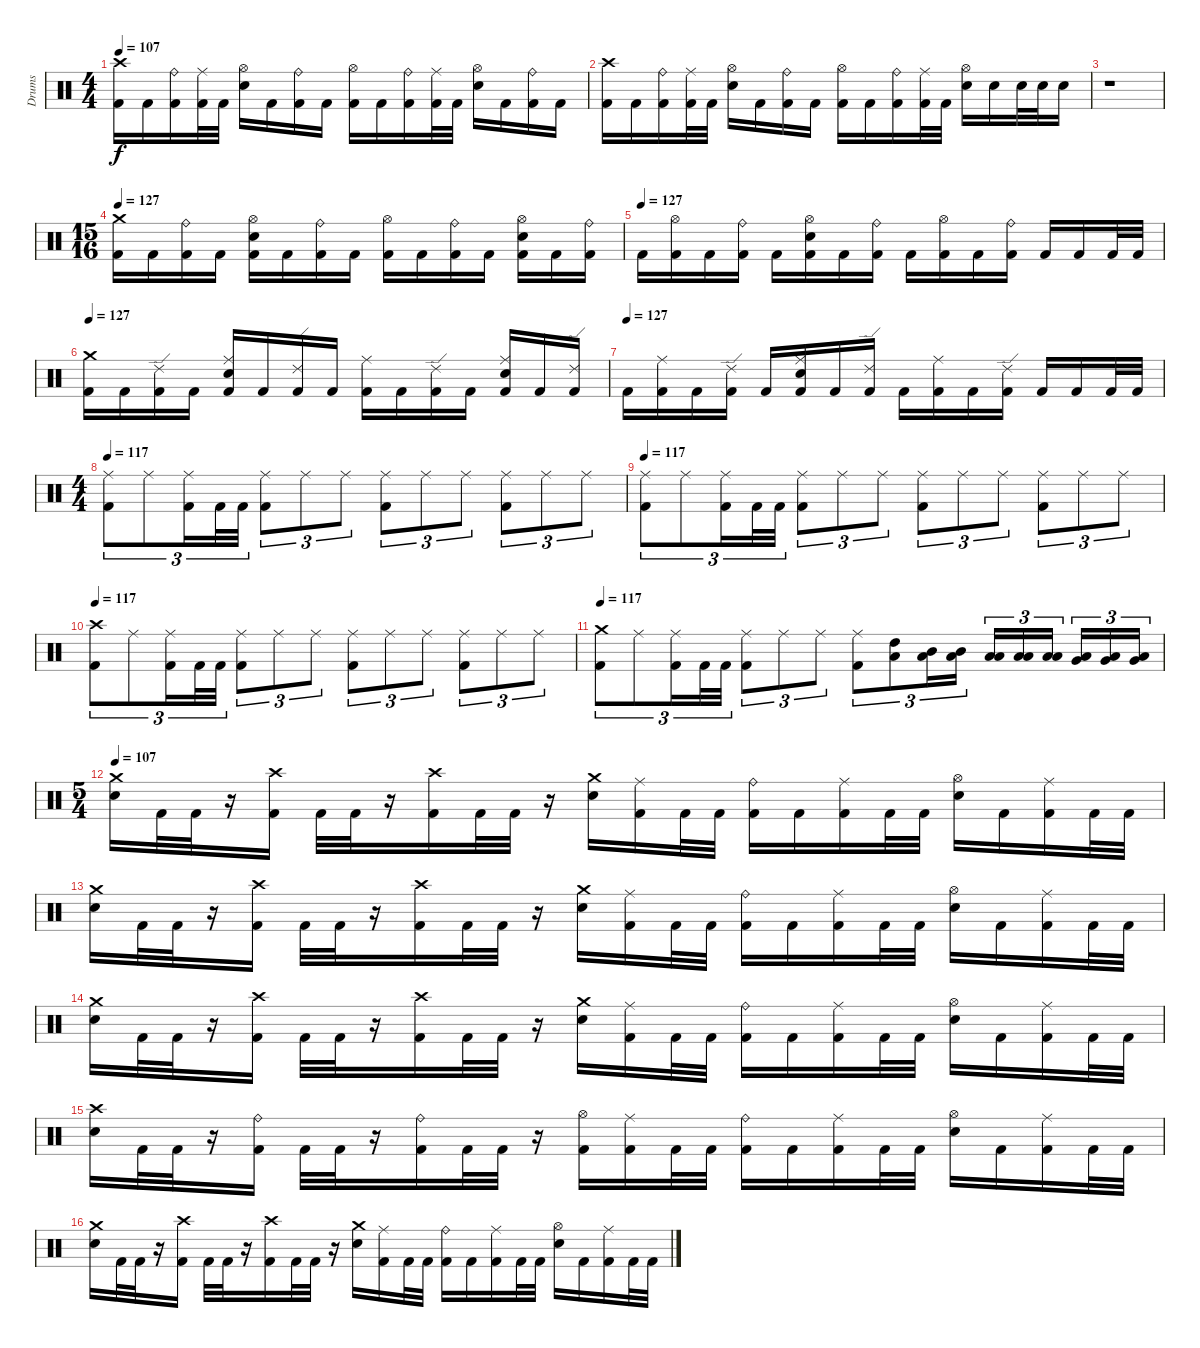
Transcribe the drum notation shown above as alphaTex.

\track ("Drums" "Drums") {instrument percussion}
\staff {score}
\articulation defaults
\ts (4 4)
\tempo 107
\clef neutral
\ks c
("Crash high (hit)" "Kick (hit) 2").16{dy f} "Kick (hit) 2".16 ("Ride (bell)" "Kick (hit) 2").16 ("Ride (middle)" "Kick (hit) 2").32 "Kick (hit) 2".32 ("Hi-Hat (open)" "Snare (hit) 2").16 "Kick (hit) 2".16 ("Ride (bell)" "Kick (hit) 2").16 "Kick (hit) 2".16 ("Hi-Hat (open)" "Kick (hit) 2").16 "Kick (hit) 2".16 ("Ride (bell)" "Kick (hit) 2").16 ("Ride (middle)" "Kick (hit) 2").32 "Kick (hit) 2".32 ("Hi-Hat (open)" "Snare (hit) 2").16 "Kick (hit) 2".16 ("Ride (bell)" "Kick (hit) 2").16 "Kick (hit) 2".16 |
("Crash high (hit)" "Kick (hit) 2").16 "Kick (hit) 2".16 ("Ride (bell)" "Kick (hit) 2").16 ("Ride (middle)" "Kick (hit) 2").32 "Kick (hit) 2".32 ("Hi-Hat (open)" "Snare (hit) 2").16 "Kick (hit) 2".16 ("Ride (bell)" "Kick (hit) 2").16 "Kick (hit) 2".16 ("Hi-Hat (open)" "Kick (hit) 2").16 "Kick (hit) 2".16 ("Ride (bell)" "Kick (hit) 2").16 ("Ride (middle)" "Kick (hit) 2").32 "Kick (hit) 2".32 ("Hi-Hat (open)" "Snare (hit) 2").16 "Electric Snare (hit)".16 "Electric Snare (hit)".32 "Electric Snare (hit)".32 "Electric Snare (hit)".16 |
r.1 |
\ts (15 16)
\tempo 127
("Crash medium (hit)" "Kick (hit) 2").16 "Kick (hit) 2".16 ("Ride (bell)" "Kick (hit) 2").16 "Kick (hit) 2".16 ("Hi-Hat (open)" "Snare (hit) 2" "Kick (hit) 2").16 "Kick (hit) 2".16 ("Ride (bell)" "Kick (hit) 2").16 "Kick (hit) 2".16 ("Hi-Hat (open)" "Kick (hit) 2").16 "Kick (hit) 2".16 ("Ride (bell)" "Kick (hit) 2").16 "Kick (hit) 2".16 ("Hi-Hat (open)" "Snare (hit) 2" "Kick (hit) 2").16 "Kick (hit) 2".16 ("Ride (bell)" "Kick (hit) 2").16 |
\tempo (127)
"Kick (hit) 2".16 ("Hi-Hat (open)" "Kick (hit) 2").16 "Kick (hit) 2".16 ("Ride (bell)" "Kick (hit) 2").16 "Kick (hit) 2".16 ("Hi-Hat (open)" "Snare (hit) 2" "Kick (hit) 2").16 "Kick (hit) 2".16 ("Ride (bell)" "Kick (hit) 2").16 "Kick (hit) 2".16 ("Hi-Hat (open)" "Kick (hit) 2").16 "Kick (hit) 2".16 ("Ride (bell)" "Kick (hit) 2").16 "Kick (hit) 2".16 "Kick (hit) 2".16 "Kick (hit) 2".32 "Kick (hit) 2".32 |
\tempo 127
("Crash medium (hit)" "Kick (hit) 2").16 "Kick (hit) 2".16 ("Ride (edge) 2" "Kick (hit) 2").16 "Kick (hit) 2".16 ("Ride (middle)" "Snare (hit) 2" "Kick (hit) 2").16 "Kick (hit) 2".16 ("Ride (edge) 2" "Kick (hit) 2").16 "Kick (hit) 2".16 ("Ride (middle)" "Kick (hit) 2").16 "Kick (hit) 2".16 ("Ride (edge) 2" "Kick (hit) 2").16 "Kick (hit) 2".16 ("Ride (middle)" "Snare (hit) 2" "Kick (hit) 2").16 "Kick (hit) 2".16 ("Ride (edge) 2" "Kick (hit) 2").16 |
\tempo (127)
"Kick (hit) 2".16 ("Ride (middle)" "Kick (hit) 2").16 "Kick (hit) 2".16 ("Ride (edge) 2" "Kick (hit) 2").16 "Kick (hit) 2".16 ("Ride (middle)" "Snare (hit) 2" "Kick (hit) 2").16 "Kick (hit) 2".16 ("Ride (edge) 2" "Kick (hit) 2").16 "Kick (hit) 2".16 ("Ride (middle)" "Kick (hit) 2").16 "Kick (hit) 2".16 ("Ride (edge) 2" "Kick (hit) 2").16 "Kick (hit) 2".16 "Kick (hit) 2".16 "Kick (hit) 2".32 "Kick (hit) 2".32 |
\ts (4 4)
\tempo 117
("Ride (middle)" "Kick (hit) 2").8{tu (3 2)} "Ride (middle)".8{tu (3 2)} ("Ride (middle)" "Kick (hit) 2").16{tu (3 2)} "Kick (hit) 2".32{tu (3 2)} "Kick (hit) 2".32{tu (3 2)} ("Ride (middle)" "Kick (hit) 2").8{tu (3 2)} "Ride (middle)".8{tu (3 2)} "Ride (middle)".8{tu (3 2)} ("Ride (middle)" "Kick (hit) 2").8{tu (3 2)} "Ride (middle)".8{tu (3 2)} "Ride (middle)".8{tu (3 2)} ("Ride (middle)" "Kick (hit) 2").8{tu (3 2)} "Ride (middle)".8{tu (3 2)} "Ride (middle)".8{tu (3 2)} |
\tempo 117
("Ride (middle)" "Kick (hit) 2").8{tu (3 2)} "Ride (middle)".8{tu (3 2)} ("Ride (middle)" "Kick (hit) 2").16{tu (3 2)} "Kick (hit) 2".32{tu (3 2)} "Kick (hit) 2".32{tu (3 2)} ("Ride (middle)" "Kick (hit) 2").8{tu (3 2)} "Ride (middle)".8{tu (3 2)} "Ride (middle)".8{tu (3 2)} ("Ride (middle)" "Kick (hit) 2").8{tu (3 2)} "Ride (middle)".8{tu (3 2)} "Ride (middle)".8{tu (3 2)} ("Ride (middle)" "Kick (hit) 2").8{tu (3 2)} "Ride (middle)".8{tu (3 2)} "Ride (middle)".8{tu (3 2)} |
\tempo 117
("Crash high (hit)" "Kick (hit) 2").8{tu (3 2)} "Ride (middle)".8{tu (3 2)} ("Ride (middle)" "Kick (hit) 2").16{tu (3 2)} "Kick (hit) 2".32{tu (3 2)} "Kick (hit) 2".32{tu (3 2)} ("Ride (middle)" "Kick (hit) 2").8{tu (3 2)} "Ride (middle)".8{tu (3 2)} "Ride (middle)".8{tu (3 2)} ("Ride (middle)" "Kick (hit) 2").8{tu (3 2)} "Ride (middle)".8{tu (3 2)} "Ride (middle)".8{tu (3 2)} ("Ride (middle)" "Kick (hit) 2").8{tu (3 2)} "Ride (middle)".8{tu (3 2)} "Ride (middle)".8{tu (3 2)} |
\tempo 117
("Crash medium (hit)" "Kick (hit) 2").8{tu (3 2)} "Ride (middle)".8{tu (3 2)} ("Ride (middle)" "Kick (hit) 2").16{tu (3 2)} "Kick (hit) 2".32{tu (3 2)} "Kick (hit) 2".32{tu (3 2)} ("Ride (middle)" "Kick (hit) 2").8{tu (3 2)} "Ride (middle)".8{tu (3 2)} "Ride (middle)".8{tu (3 2)} ("Ride (middle)" "Kick (hit) 2").8{tu (3 2)} ("High Tom (hit)" "Low Floor Tom (hit)").8{tu (3 2)} ("Mid Tom (hit)" "Low Floor Tom (hit)").16{tu (3 2)} ("Mid Tom (hit)" "Low Floor Tom (hit)").16{tu (3 2)} ("Low Tom (hit)" "Low Floor Tom (hit)").16{tu (3 2)} ("Low Tom (hit)" "Low Floor Tom (hit)").16{tu (3 2)} ("Low Tom (hit)" "Low Floor Tom (hit)").16{tu (3 2)} ("Very Low Tom (hit)" "Low Floor Tom (hit)").16{tu (3 2)} ("Very Low Tom (hit)" "Low Floor Tom (hit)").16{tu (3 2)} ("Very Low Tom (hit)" "Low Floor Tom (hit)").16{tu (3 2)} |
\ts (5 4)
\tempo 107
("Crash medium (hit)" "Snare (hit) 2").16 "Kick (hit) 2".32 "Kick (hit) 2".32 r.16 ("Crash high (hit)" "Kick (hit) 2").16 "Kick (hit) 2".32 "Kick (hit) 2".32 r.16 ("Crash high (hit)" "Kick (hit) 2").16 "Kick (hit) 2".32 "Kick (hit) 2".32 r.16 ("Crash medium (hit)" "Snare (hit) 2").16 ("Ride (middle)" "Kick (hit) 2").16 "Kick (hit) 2".32 "Kick (hit) 2".32 ("Ride (bell)" "Kick (hit) 2").16 "Kick (hit) 2".16 ("Ride (middle)" "Kick (hit) 2").16 "Kick (hit) 2".32 "Kick (hit) 2".32 ("Hi-Hat (open)" "Snare (hit) 2").16 "Kick (hit) 2".16 ("Ride (middle)" "Kick (hit) 2").16 "Kick (hit) 2".32 "Kick (hit) 2".32 |
("Crash medium (hit)" "Snare (hit) 2").16 "Kick (hit) 2".32 "Kick (hit) 2".32 r.16 ("Crash high (hit)" "Kick (hit) 2").16 "Kick (hit) 2".32 "Kick (hit) 2".32 r.16 ("Crash high (hit)" "Kick (hit) 2").16 "Kick (hit) 2".32 "Kick (hit) 2".32 r.16 ("Crash medium (hit)" "Snare (hit) 2").16 ("Ride (middle)" "Kick (hit) 2").16 "Kick (hit) 2".32 "Kick (hit) 2".32 ("Ride (bell)" "Kick (hit) 2").16 "Kick (hit) 2".16 ("Ride (middle)" "Kick (hit) 2").16 "Kick (hit) 2".32 "Kick (hit) 2".32 ("Hi-Hat (open)" "Snare (hit) 2").16 "Kick (hit) 2".16 ("Ride (middle)" "Kick (hit) 2").16 "Kick (hit) 2".32 "Kick (hit) 2".32 |
("Crash medium (hit)" "Snare (hit) 2").16 "Kick (hit) 2".32 "Kick (hit) 2".32 r.16 ("Crash high (hit)" "Kick (hit) 2").16 "Kick (hit) 2".32 "Kick (hit) 2".32 r.16 ("Crash high (hit)" "Kick (hit) 2").16 "Kick (hit) 2".32 "Kick (hit) 2".32 r.16 ("Crash medium (hit)" "Snare (hit) 2").16 ("Ride (middle)" "Kick (hit) 2").16 "Kick (hit) 2".32 "Kick (hit) 2".32 ("Ride (bell)" "Kick (hit) 2").16 "Kick (hit) 2".16 ("Ride (middle)" "Kick (hit) 2").16 "Kick (hit) 2".32 "Kick (hit) 2".32 ("Hi-Hat (open)" "Snare (hit) 2").16 "Kick (hit) 2".16 ("Ride (middle)" "Kick (hit) 2").16 "Kick (hit) 2".32 "Kick (hit) 2".32 |
("Crash high (hit)" "Snare (hit) 2").16 "Kick (hit) 2".32 "Kick (hit) 2".32 r.16 ("Ride (bell)" "Kick (hit) 2").16 "Kick (hit) 2".32 "Kick (hit) 2".32 r.16 ("Ride (bell)" "Kick (hit) 2").16 "Kick (hit) 2".32 "Kick (hit) 2".32 r.16 ("Hi-Hat (open)" "Kick (hit) 2").16 ("Ride (middle)" "Kick (hit) 2").16 "Kick (hit) 2".32 "Kick (hit) 2".32 ("Ride (bell)" "Kick (hit) 2").16 "Kick (hit) 2".16 ("Ride (middle)" "Kick (hit) 2").16 "Kick (hit) 2".32 "Kick (hit) 2".32 ("Hi-Hat (open)" "Snare (hit) 2").16 "Kick (hit) 2".16 ("Ride (middle)" "Kick (hit) 2").16 "Kick (hit) 2".32 "Kick (hit) 2".32 |
("Crash medium (hit)" "Snare (hit) 2").16 "Kick (hit) 2".32 "Kick (hit) 2".32 r.16 ("Crash high (hit)" "Kick (hit) 2").16 "Kick (hit) 2".32 "Kick (hit) 2".32 r.16 ("Crash high (hit)" "Kick (hit) 2").16 "Kick (hit) 2".32 "Kick (hit) 2".32 r.16 ("Crash medium (hit)" "Snare (hit) 2").16 ("Ride (middle)" "Kick (hit) 2").16 "Kick (hit) 2".32 "Kick (hit) 2".32 ("Ride (bell)" "Kick (hit) 2").16 "Kick (hit) 2".16 ("Ride (middle)" "Kick (hit) 2").16 "Kick (hit) 2".32 "Kick (hit) 2".32 ("Hi-Hat (open)" "Snare (hit) 2").16 "Kick (hit) 2".16 ("Ride (middle)" "Kick (hit) 2").16 "Kick (hit) 2".32 "Kick (hit) 2".32
